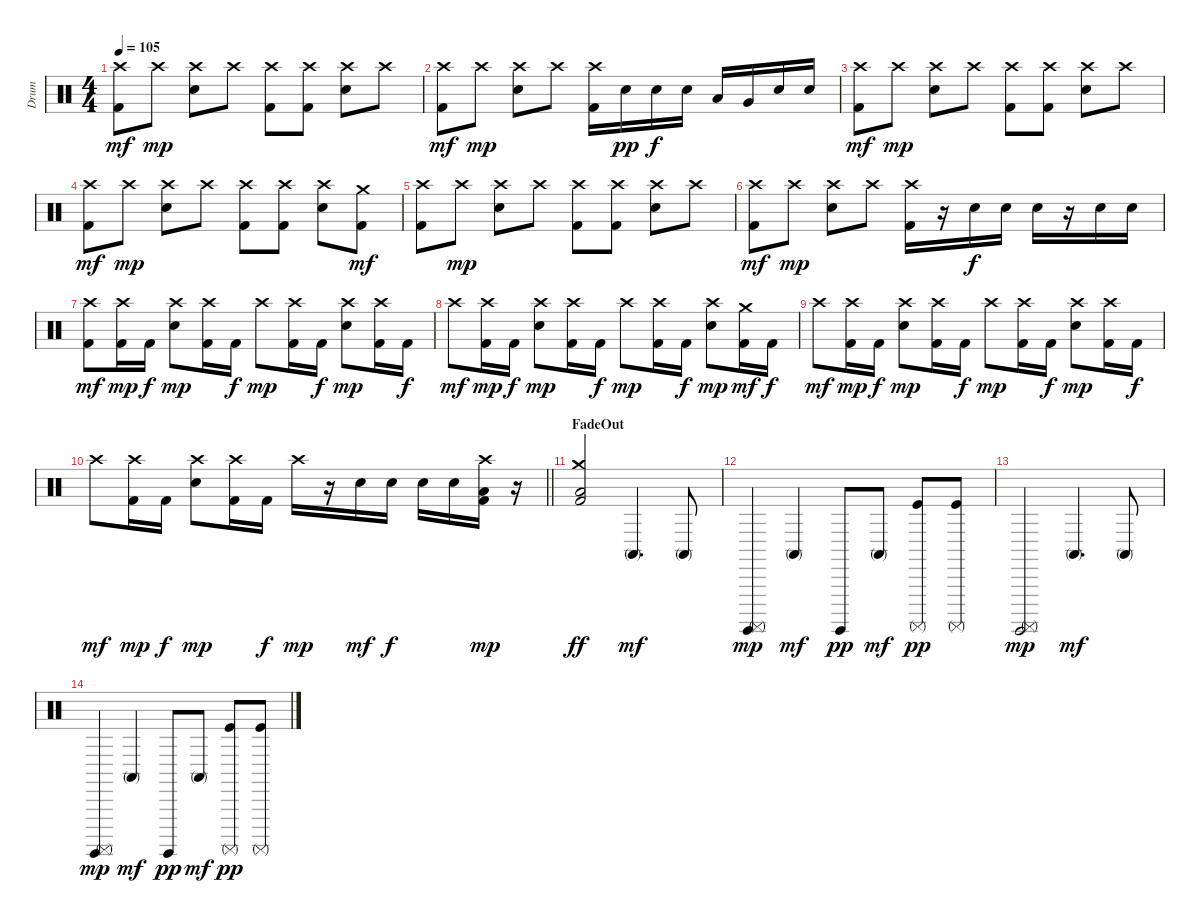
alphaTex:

\track ("Drum" "Drum") {instrument percussion}
\staff {score}
\articulation defaults
\ts (4 4)
\tempo 105
\clef neutral
\ks c
("Crash high (hit)" "Kick (hit) 2").8{dy mf} "Crash high (hit)".8{dy mp} ("Crash high (hit)" "Electric Snare (hit)").8 "Crash high (hit)".8 ("Crash high (hit)" "Kick (hit) 2").8 ("Crash high (hit)" "Kick (hit) 2").8 ("Crash high (hit)" "Electric Snare (hit)").8 "Crash high (hit)".8 |
("Crash high (hit)" "Kick (hit) 2").8{dy mf} "Crash high (hit)".8{dy mp} ("Crash high (hit)" "Electric Snare (hit)").8 "Crash high (hit)".8 ("Crash high (hit)" "Kick (hit) 2").16 "Electric Snare (hit)".16{dy pp} "Electric Snare (hit)".16{dy f} "Electric Snare (hit)".16 "Low Tom (hit)".16 "Very Low Tom (hit)".16 "Electric Snare (hit)".16 "Electric Snare (hit)".16 |
("Crash high (hit)" "Kick (hit) 2").8{dy mf} "Crash high (hit)".8{dy mp} ("Crash high (hit)" "Electric Snare (hit)").8 "Crash high (hit)".8 ("Crash high (hit)" "Kick (hit) 2").8 ("Crash high (hit)" "Kick (hit) 2").8 ("Crash high (hit)" "Electric Snare (hit)").8 "Crash high (hit)".8 |
("Crash high (hit)" "Kick (hit) 2").8{dy mf} "Crash high (hit)".8{dy mp} ("Crash high (hit)" "Electric Snare (hit)").8 "Crash high (hit)".8 ("Crash high (hit)" "Kick (hit) 2").8 ("Crash high (hit)" "Kick (hit) 2").8 ("Crash high (hit)" "Electric Snare (hit)").8 ("Crash medium (hit)" "Kick (hit) 2").8{dy mf} |
("Crash high (hit)" "Kick (hit) 2").8 "Crash high (hit)".8{dy mp} ("Crash high (hit)" "Electric Snare (hit)").8 "Crash high (hit)".8 ("Crash high (hit)" "Kick (hit) 2").8 ("Crash high (hit)" "Kick (hit) 2").8 ("Crash high (hit)" "Electric Snare (hit)").8 "Crash high (hit)".8 |
("Crash high (hit)" "Kick (hit) 2").8{dy mf} "Crash high (hit)".8{dy mp} ("Crash high (hit)" "Electric Snare (hit)").8 "Crash high (hit)".8 ("Crash high (hit)" "Kick (hit) 2").16 r.16 "Electric Snare (hit)".16{dy f} "Electric Snare (hit)".16 "Electric Snare (hit)".16 r.16 "Electric Snare (hit)".16 "Electric Snare (hit)".16 |
("Crash high (hit)" "Kick (hit) 2").8{dy mf} ("Crash high (hit)" "Kick (hit) 2").16{dy mp} "Kick (hit) 2".16{dy f} ("Crash high (hit)" "Electric Snare (hit)").8{dy mp} ("Crash high (hit)" "Kick (hit) 2").16 "Kick (hit) 2".16{dy f} "Crash high (hit)".8{dy mp} ("Crash high (hit)" "Kick (hit) 2").16 "Kick (hit) 2".16{dy f} ("Crash high (hit)" "Electric Snare (hit)").8{dy mp} ("Crash high (hit)" "Kick (hit) 2").16 "Kick (hit) 2".16{dy f} |
"Crash high (hit)".8{dy mf} ("Crash high (hit)" "Kick (hit) 2").16{dy mp} "Kick (hit) 2".16{dy f} ("Crash high (hit)" "Electric Snare (hit)").8{dy mp} ("Crash high (hit)" "Kick (hit) 2").16 "Kick (hit) 2".16{dy f} "Crash high (hit)".8{dy mp} ("Crash high (hit)" "Kick (hit) 2").16 "Kick (hit) 2".16{dy f} ("Crash high (hit)" "Electric Snare (hit)").8{dy mp} ("Crash medium (hit)" "Kick (hit) 2").16{dy mf} "Kick (hit) 2".16{dy f} |
"Crash high (hit)".8{dy mf} ("Crash high (hit)" "Kick (hit) 2").16{dy mp} "Kick (hit) 2".16{dy f} ("Crash high (hit)" "Electric Snare (hit)").8{dy mp} ("Crash high (hit)" "Kick (hit) 2").16 "Kick (hit) 2".16{dy f} "Crash high (hit)".8{dy mp} ("Crash high (hit)" "Kick (hit) 2").16 "Kick (hit) 2".16{dy f} ("Crash high (hit)" "Electric Snare (hit)").8{dy mp} ("Crash high (hit)" "Kick (hit) 2").16 "Kick (hit) 2".16{dy f} |
\barLineRight lightlight "Crash high (hit)".8{dy mf}
("Crash high (hit)" "Kick (hit) 2").16{dy mp} "Kick (hit) 2".16{dy f} ("Crash high (hit)" "Electric Snare (hit)").8{dy mp} ("Crash high (hit)" "Kick (hit) 2").16 "Kick (hit) 2".16{dy f} "Crash high (hit)".16{dy mp} r.16 "Electric Snare (hit)".16{dy mf} "Electric Snare (hit)".16{dy f} "Electric Snare (hit)".16 "Electric Snare (hit)".16 ("Crash high (hit)" "Low Floor Tom (hit)" "Kick (hit) 2").16{dy mp} r.16 |
\section ("" "FadeOut")
("Crash medium (hit)" "Low Floor Tom (hit)" "Kick (hit) 2").2{dy ff} "Conga high (mute)".4{d dy mf} "Conga high (mute)".8 |
("Surdo (mute)" "Surdo (hit)").4{dy mp} "Conga high (mute)".4{dy mf} "Surdo (hit)".8{dy pp} "Conga high (mute)".8{dy mf} ("Kick (hit)" "Surdo (mute)").8{dy pp} ("Kick (hit)" "Surdo (mute)").8 |
("Surdo (mute)" "Surdo (hit)").2{dy mp} "Conga high (mute)".4{d dy mf} "Conga high (mute)".8 |
("Surdo (mute)" "Surdo (hit)").4{dy mp} "Conga high (mute)".4{dy mf} "Surdo (hit)".8{dy pp} "Conga high (mute)".8{dy mf} ("Kick (hit)" "Surdo (mute)").8{dy pp} ("Kick (hit)" "Surdo (mute)").8
